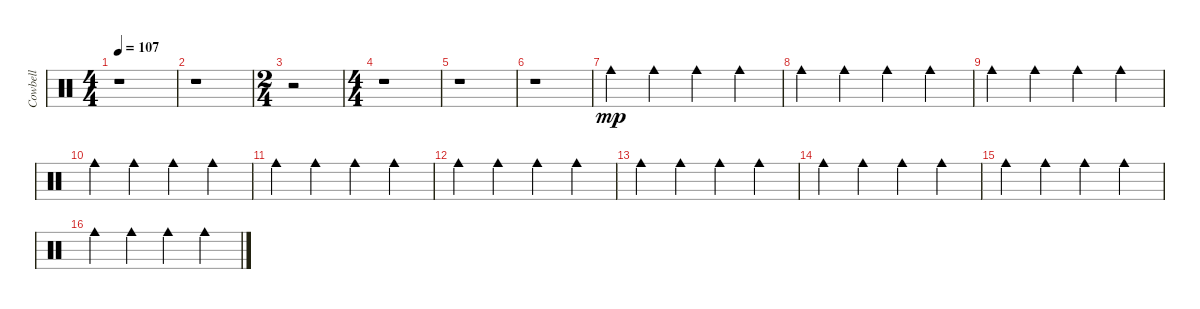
\track ("Cowbell" "Cowbell") {instrument percussion}
\staff {score}
\articulation defaults
\ts (4 4)
\tempo 107
\clef neutral
\ks c
r.1{dy mp} |
r.1 |
\ts (2 4)
r.2 |
\ts (4 4)
r.1 |
r.1 |
r.1 |
"Cowbell medium (hit)".4 "Cowbell medium (hit)".4 "Cowbell medium (hit)".4 "Cowbell medium (hit)".4 |
"Cowbell medium (hit)".4 "Cowbell medium (hit)".4 "Cowbell medium (hit)".4 "Cowbell medium (hit)".4 |
"Cowbell medium (hit)".4 "Cowbell medium (hit)".4 "Cowbell medium (hit)".4 "Cowbell medium (hit)".4 |
"Cowbell medium (hit)".4 "Cowbell medium (hit)".4 "Cowbell medium (hit)".4 "Cowbell medium (hit)".4 |
"Cowbell medium (hit)".4 "Cowbell medium (hit)".4 "Cowbell medium (hit)".4 "Cowbell medium (hit)".4 |
"Cowbell medium (hit)".4 "Cowbell medium (hit)".4 "Cowbell medium (hit)".4 "Cowbell medium (hit)".4 |
"Cowbell medium (hit)".4 "Cowbell medium (hit)".4 "Cowbell medium (hit)".4 "Cowbell medium (hit)".4 |
"Cowbell medium (hit)".4 "Cowbell medium (hit)".4 "Cowbell medium (hit)".4 "Cowbell medium (hit)".4 |
"Cowbell medium (hit)".4 "Cowbell medium (hit)".4 "Cowbell medium (hit)".4 "Cowbell medium (hit)".4 |
"Cowbell medium (hit)".4 "Cowbell medium (hit)".4 "Cowbell medium (hit)".4 "Cowbell medium (hit)".4
